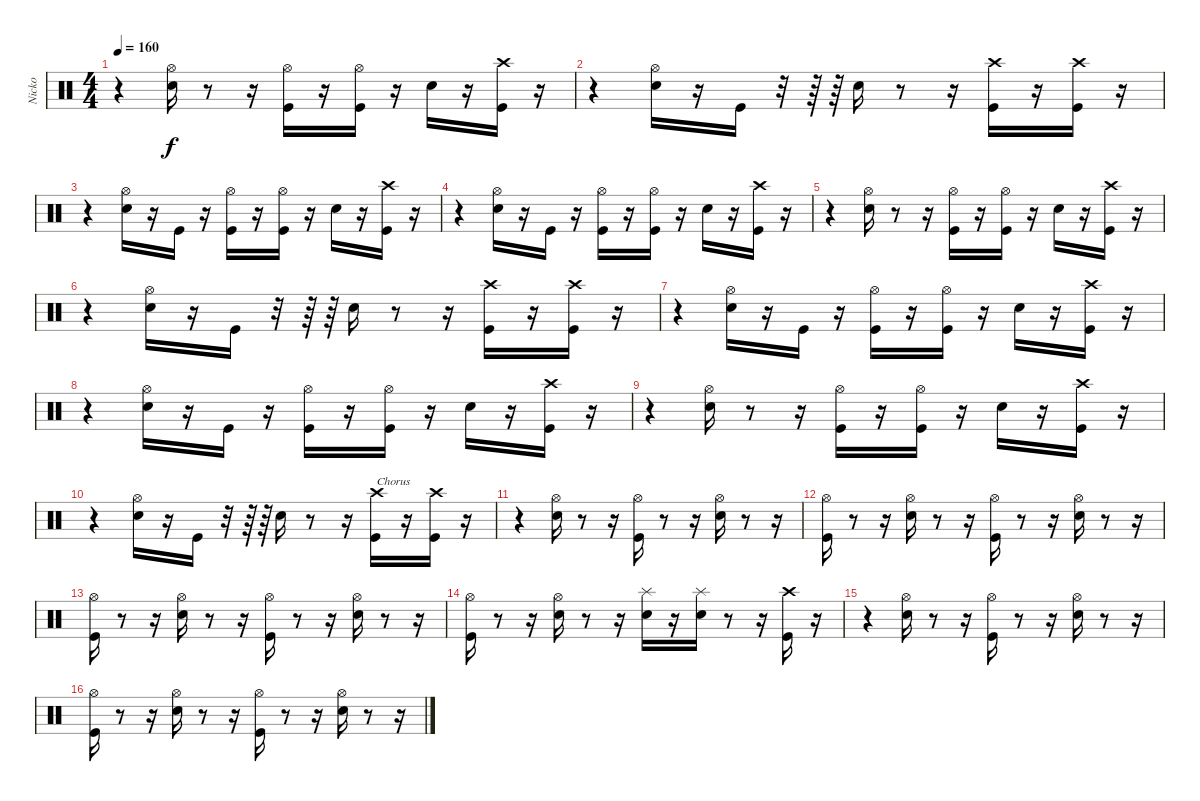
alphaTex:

\track ("Nicko" "Nicko") {instrument percussion}
\staff {score}
\articulation defaults
\ts (4 4)
\tempo 160
\clef neutral
\ks c
r.4{dy f} ("Snare (hit) 2" "Hi-Hat (open)").16 r.8 r.16 ("Hi-Hat (open)" "Kick (hit)").16 r.16 ("Hi-Hat (open)" "Kick (hit)").16 r.16 "Snare (hit) 2".16 r.16 ("Kick (hit)" "Crash high (hit)").16 r.16 |
r.4 ("Hi-Hat (open)" "Snare (hit) 2").16 r.16 "Kick (hit)".16 r.32 r.64 r.64 "Snare (hit) 2".16 r.8 r.16 ("Kick (hit)" "Crash high (hit)").16 r.16 ("Kick (hit)" "Crash high (hit)").16 r.16 |
r.4 ("Snare (hit) 2" "Hi-Hat (open)").16 r.16 "Kick (hit)".16 r.16 ("Hi-Hat (open)" "Kick (hit)").16 r.16 ("Kick (hit)" "Hi-Hat (open)").16 r.16 "Snare (hit) 2".16 r.16 ("Kick (hit)" "Crash high (hit)").16 r.16 |
r.4 ("Snare (hit) 2" "Hi-Hat (open)").16 r.16 "Kick (hit)".16 r.16 ("Hi-Hat (open)" "Kick (hit)").16 r.16 ("Kick (hit)" "Hi-Hat (open)").16 r.16 "Snare (hit) 2".16 r.16 ("Kick (hit)" "Crash high (hit)").16 r.16 |
r.4 ("Snare (hit) 2" "Hi-Hat (open)").16 r.8 r.16 ("Hi-Hat (open)" "Kick (hit)").16 r.16 ("Hi-Hat (open)" "Kick (hit)").16 r.16 "Snare (hit) 2".16 r.16 ("Kick (hit)" "Crash high (hit)").16 r.16 |
r.4 ("Hi-Hat (open)" "Snare (hit) 2").16 r.16 "Kick (hit)".16 r.32 r.64 r.64 "Snare (hit) 2".16 r.8 r.16 ("Kick (hit)" "Crash high (hit)").16 r.16 ("Kick (hit)" "Crash high (hit)").16 r.16 |
r.4 ("Snare (hit) 2" "Hi-Hat (open)").16 r.16 "Kick (hit)".16 r.16 ("Hi-Hat (open)" "Kick (hit)").16 r.16 ("Kick (hit)" "Hi-Hat (open)").16 r.16 "Snare (hit) 2".16 r.16 ("Kick (hit)" "Crash high (hit)").16 r.16 |
r.4 ("Snare (hit) 2" "Hi-Hat (open)").16 r.16 "Kick (hit)".16 r.16 ("Hi-Hat (open)" "Kick (hit)").16 r.16 ("Kick (hit)" "Hi-Hat (open)").16 r.16 "Snare (hit) 2".16 r.16 ("Kick (hit)" "Crash high (hit)").16 r.16 |
r.4 ("Snare (hit) 2" "Hi-Hat (open)").16 r.8 r.16 ("Hi-Hat (open)" "Kick (hit)").16 r.16 ("Hi-Hat (open)" "Kick (hit)").16 r.16 "Snare (hit) 2".16 r.16 ("Kick (hit)" "Crash high (hit)").16 r.16 |
r.4 ("Hi-Hat (open)" "Snare (hit) 2").16 r.16 "Kick (hit)".16 r.32 r.64 r.64 "Snare (hit) 2".16 r.8 r.16 ("Kick (hit)" "Crash high (hit)").16{txt "Chorus"} r.16 ("Kick (hit)" "Crash high (hit)").16 r.16 |
r.4 ("Snare (hit) 2" "Hi-Hat (open)").16 r.8 r.16 ("Kick (hit)" "Hi-Hat (open)").16 r.8 r.16 ("Snare (hit) 2" "Hi-Hat (open)").16 r.8 r.16 |
("Kick (hit)" "Hi-Hat (open)").16 r.8 r.16 ("Hi-Hat (open)" "Snare (hit) 2").16 r.8 r.16 ("Kick (hit)" "Hi-Hat (open)").16 r.8 r.16 ("Snare (hit) 2" "Hi-Hat (open)").16 r.8 r.16 |
("Kick (hit)" "Hi-Hat (open)").16 r.8 r.16 ("Hi-Hat (open)" "Snare (hit) 2").16 r.8 r.16 ("Kick (hit)" "Hi-Hat (open)").16 r.8 r.16 ("Snare (hit) 2" "Hi-Hat (open)").16 r.8 r.16 |
("Kick (hit)" "Hi-Hat (open)").16 r.8 r.16 ("Hi-Hat (open)" "Snare (hit) 2").16 r.8 r.16 ("Snare (hit) 2" "Splash (hit)").16 r.16 ("Snare (hit) 2" "Splash (hit)").16 r.8 r.16 ("Kick (hit)" "Crash high (hit)").16 r.16 |
r.4 ("Hi-Hat (open)" "Snare (hit) 2").16 r.8 r.16 ("Kick (hit)" "Hi-Hat (open)").16 r.8 r.16 ("Snare (hit) 2" "Hi-Hat (open)").16 r.8 r.16 |
("Kick (hit)" "Hi-Hat (open)").16 r.8 r.16 ("Hi-Hat (open)" "Snare (hit) 2").16 r.8 r.16 ("Kick (hit)" "Hi-Hat (open)").16 r.8 r.16 ("Snare (hit) 2" "Hi-Hat (open)").16 r.8 r.16
